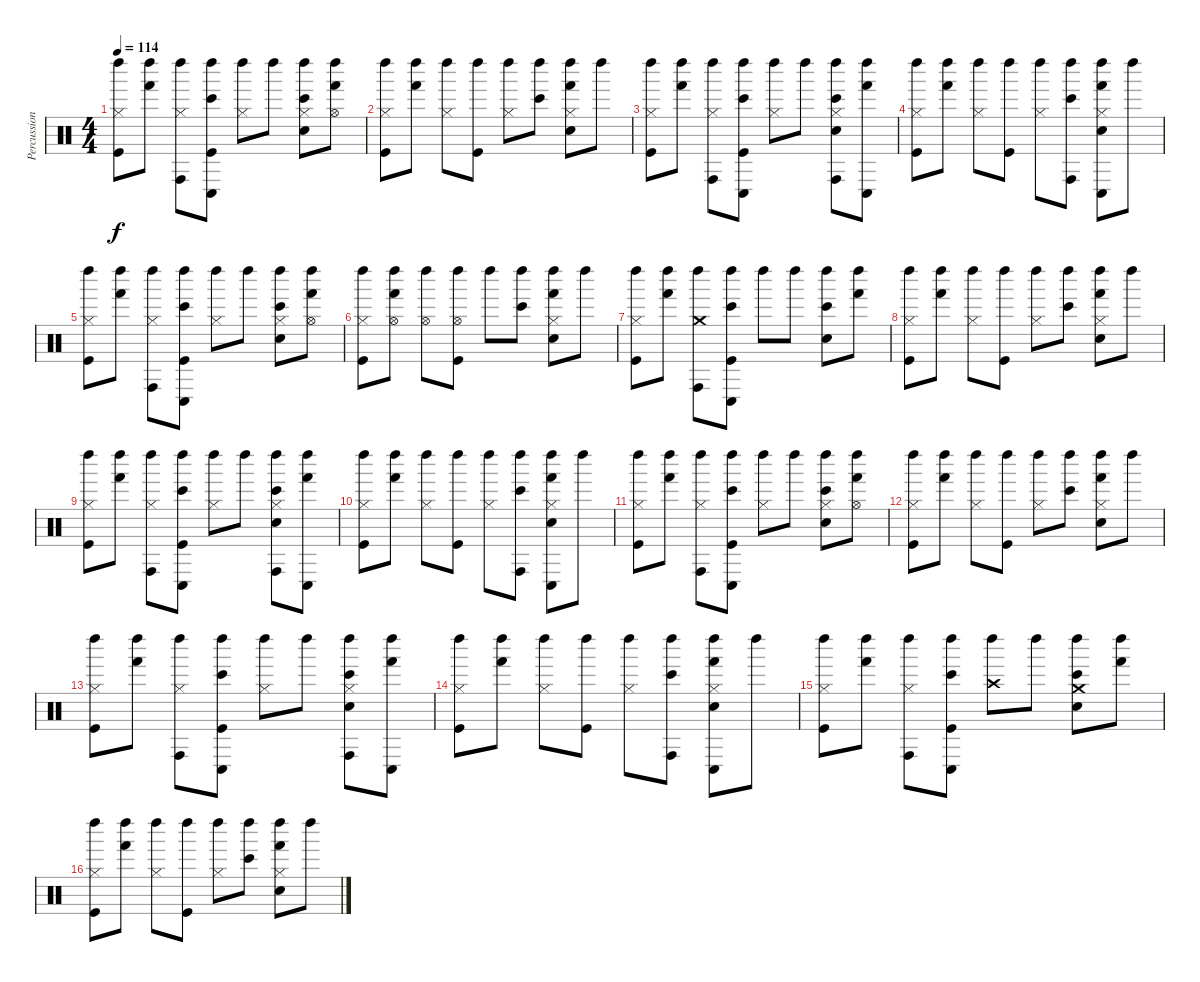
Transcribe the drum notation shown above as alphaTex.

\track ("Percussion" "Percussion") {instrument percussion}
\staff {score}
\articulation defaults
\ts (4 4)
\tempo 114
\clef neutral
\ks c
("Left Maraca (hit)" "Hi-Hat (closed)" "Kick (hit)").8{dy f} ("Left Maraca (hit)" "Hand (hit)").8 ("Left Maraca (hit)" "Conga high (hit)" "Hi-Hat (closed)").8 ("Left Maraca (hit)" "Conga low (hit)" "Bongo High (hit)" "Kick (hit)").8 ("Left Maraca (hit)" "Hi-Hat (closed)").8 "Left Maraca (hit)".8 ("Left Maraca (hit)" "Bongo High (hit)" "Hi-Hat (closed)" "Snare (hit) 2").8 ("Left Maraca (hit)" "Hand (hit)" "Hi-Hat (open)").8 |
("Left Maraca (hit)" "Hi-Hat (closed)" "Kick (hit)").8 ("Left Maraca (hit)" "Hand (hit)").8 ("Left Maraca (hit)" "Hi-Hat (closed)").8 ("Left Maraca (hit)" "Kick (hit)").8 ("Left Maraca (hit)" "Hi-Hat (closed)").8 ("Left Maraca (hit)" "Bongo High (hit)").8 ("Left Maraca (hit)" "Hand (hit)" "Hi-Hat (closed)" "Snare (hit) 2").8 "Left Maraca (hit)".8 |
("Left Maraca (hit)" "Hi-Hat (closed)" "Kick (hit)").8 ("Left Maraca (hit)" "Hand (hit)").8 ("Left Maraca (hit)" "Conga high (hit)" "Hi-Hat (closed)").8 ("Left Maraca (hit)" "Conga low (hit)" "Bongo High (hit)" "Kick (hit)").8 ("Left Maraca (hit)" "Hi-Hat (closed)").8 "Left Maraca (hit)".8 ("Left Maraca (hit)" "Conga high (hit)" "Bongo High (hit)" "Hi-Hat (closed)" "Snare (hit) 2").8 ("Left Maraca (hit)" "Conga low (hit)" "Hand (hit)").8 |
("Left Maraca (hit)" "Hi-Hat (closed)" "Kick (hit)").8 ("Left Maraca (hit)" "Hand (hit)").8 ("Left Maraca (hit)" "Hi-Hat (closed)").8 ("Left Maraca (hit)" "Kick (hit)").8 ("Left Maraca (hit)" "Hi-Hat (closed)").8 ("Left Maraca (hit)" "Conga high (hit)" "Bongo High (hit)").8 ("Left Maraca (hit)" "Conga low (hit)" "Hand (hit)" "Hi-Hat (closed)" "Snare (hit) 2").8 "Left Maraca (hit)".8 |
("Left Maraca (hit)" "Hi-Hat (closed)" "Kick (hit)").8 ("Left Maraca (hit)" "Hand (hit)").8 ("Left Maraca (hit)" "Conga high (hit)" "Hi-Hat (closed)").8 ("Left Maraca (hit)" "Conga low (hit)" "Bongo High (hit)" "Kick (hit)").8 ("Left Maraca (hit)" "Hi-Hat (closed)").8 "Left Maraca (hit)".8 ("Left Maraca (hit)" "Bongo High (hit)" "Hi-Hat (closed)" "Snare (hit) 2").8 ("Left Maraca (hit)" "Hand (hit)" "Hi-Hat (open)").8 |
("Left Maraca (hit)" "Hi-Hat (closed)" "Kick (hit)").8 ("Left Maraca (hit)" "Hand (hit)" "Hi-Hat (open)").8 ("Left Maraca (hit)" "Hi-Hat (open)").8 ("Left Maraca (hit)" "Hi-Hat (open)" "Kick (hit)").8 "Left Maraca (hit)".8 ("Left Maraca (hit)" "Bongo High (hit)").8 ("Left Maraca (hit)" "Hand (hit)" "Hi-Hat (closed)" "Snare (hit) 2").8 "Left Maraca (hit)".8 |
("Left Maraca (hit)" "Hi-Hat (closed)" "Kick (hit)").8 ("Left Maraca (hit)" "Hand (hit)").8 ("Left Maraca (hit)" "Conga high (hit)" "Crash medium (hit)").8 ("Left Maraca (hit)" "Conga low (hit)" "Bongo High (hit)" "Kick (hit)").8 "Left Maraca (hit)".8 "Left Maraca (hit)".8 ("Left Maraca (hit)" "Bongo High (hit)" "Snare (hit) 2").8 ("Left Maraca (hit)" "Hand (hit)").8 |
("Left Maraca (hit)" "Hi-Hat (closed)" "Kick (hit)").8 ("Left Maraca (hit)" "Hand (hit)").8 ("Left Maraca (hit)" "Hi-Hat (closed)").8 ("Left Maraca (hit)" "Kick (hit)").8 ("Left Maraca (hit)" "Hi-Hat (closed)").8 ("Left Maraca (hit)" "Bongo High (hit)").8 ("Left Maraca (hit)" "Hand (hit)" "Hi-Hat (closed)" "Snare (hit) 2").8 "Left Maraca (hit)".8 |
("Left Maraca (hit)" "Hi-Hat (closed)" "Kick (hit)").8 ("Left Maraca (hit)" "Hand (hit)").8 ("Left Maraca (hit)" "Conga high (hit)" "Hi-Hat (closed)").8 ("Left Maraca (hit)" "Conga low (hit)" "Bongo High (hit)" "Kick (hit)").8 ("Left Maraca (hit)" "Hi-Hat (closed)").8 "Left Maraca (hit)".8 ("Left Maraca (hit)" "Conga high (hit)" "Bongo High (hit)" "Hi-Hat (closed)" "Snare (hit) 2").8 ("Left Maraca (hit)" "Conga low (hit)" "Hand (hit)").8 |
("Left Maraca (hit)" "Hi-Hat (closed)" "Kick (hit)").8 ("Left Maraca (hit)" "Hand (hit)").8 ("Left Maraca (hit)" "Hi-Hat (closed)").8 ("Left Maraca (hit)" "Kick (hit)").8 ("Left Maraca (hit)" "Hi-Hat (closed)").8 ("Left Maraca (hit)" "Conga high (hit)" "Bongo High (hit)").8 ("Left Maraca (hit)" "Conga low (hit)" "Hand (hit)" "Hi-Hat (closed)" "Snare (hit) 2").8 "Left Maraca (hit)".8 |
("Left Maraca (hit)" "Hi-Hat (closed)" "Kick (hit)").8 ("Left Maraca (hit)" "Hand (hit)").8 ("Left Maraca (hit)" "Conga high (hit)" "Hi-Hat (closed)").8 ("Left Maraca (hit)" "Conga low (hit)" "Bongo High (hit)" "Kick (hit)").8 ("Left Maraca (hit)" "Hi-Hat (closed)").8 "Left Maraca (hit)".8 ("Left Maraca (hit)" "Bongo High (hit)" "Hi-Hat (closed)" "Snare (hit) 2").8 ("Left Maraca (hit)" "Hand (hit)" "Hi-Hat (open)").8 |
("Left Maraca (hit)" "Hi-Hat (closed)" "Kick (hit)").8 ("Left Maraca (hit)" "Hand (hit)").8 ("Left Maraca (hit)" "Hi-Hat (closed)").8 ("Left Maraca (hit)" "Kick (hit)").8 ("Left Maraca (hit)" "Hi-Hat (closed)").8 ("Left Maraca (hit)" "Bongo High (hit)").8 ("Left Maraca (hit)" "Hand (hit)" "Hi-Hat (closed)" "Snare (hit) 2").8 "Left Maraca (hit)".8 |
("Left Maraca (hit)" "Hi-Hat (closed)" "Kick (hit)").8 ("Left Maraca (hit)" "Hand (hit)").8 ("Left Maraca (hit)" "Conga high (hit)" "Hi-Hat (closed)").8 ("Left Maraca (hit)" "Conga low (hit)" "Bongo High (hit)" "Kick (hit)").8 ("Left Maraca (hit)" "Hi-Hat (closed)").8 "Left Maraca (hit)".8 ("Left Maraca (hit)" "Conga high (hit)" "Bongo High (hit)" "Hi-Hat (closed)" "Snare (hit) 2").8 ("Left Maraca (hit)" "Conga low (hit)" "Hand (hit)").8 |
("Left Maraca (hit)" "Hi-Hat (closed)" "Kick (hit)").8 ("Left Maraca (hit)" "Hand (hit)").8 ("Left Maraca (hit)" "Hi-Hat (closed)").8 ("Left Maraca (hit)" "Kick (hit)").8 ("Left Maraca (hit)" "Hi-Hat (closed)").8 ("Left Maraca (hit)" "Conga high (hit)" "Bongo High (hit)").8 ("Left Maraca (hit)" "Conga low (hit)" "Hand (hit)" "Hi-Hat (closed)" "Snare (hit) 2").8 "Left Maraca (hit)".8 |
("Left Maraca (hit)" "Hi-Hat (closed)" "Kick (hit)").8 ("Left Maraca (hit)" "Hand (hit)").8 ("Left Maraca (hit)" "Conga high (hit)" "Hi-Hat (closed)").8 ("Left Maraca (hit)" "Conga low (hit)" "Bongo High (hit)" "Kick (hit)").8 ("Left Maraca (hit)" "Crash high (hit)").8 "Left Maraca (hit)".8 ("Left Maraca (hit)" "Bongo High (hit)" "Crash medium (hit)" "Snare (hit) 2").8 ("Left Maraca (hit)" "Hand (hit)").8 |
("Left Maraca (hit)" "Hi-Hat (closed)" "Kick (hit)").8 ("Left Maraca (hit)" "Hand (hit)").8 ("Left Maraca (hit)" "Hi-Hat (closed)").8 ("Left Maraca (hit)" "Kick (hit)").8 ("Left Maraca (hit)" "Hi-Hat (closed)").8 ("Left Maraca (hit)" "Bongo High (hit)").8 ("Left Maraca (hit)" "Hand (hit)" "Hi-Hat (closed)" "Snare (hit) 2").8 "Left Maraca (hit)".8
